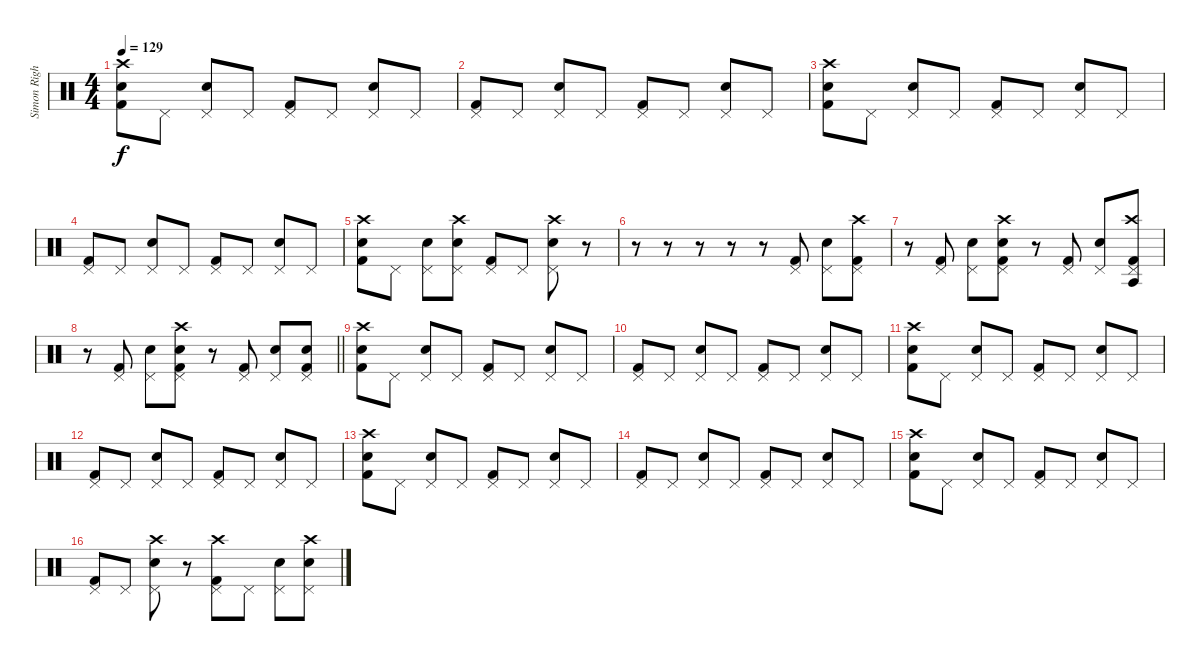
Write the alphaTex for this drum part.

\track ("Simon Right" "Simon Righ") {instrument percussion}
\staff {score}
\articulation defaults
\ts (4 4)
\tempo 129
\clef neutral
\ks c
("Crash high (hit)" "Snare (hit) 2" "Kick (hit) 2").8{dy f} "Pedal Hi-Hat (hit)".8 ("Snare (hit) 2" "Pedal Hi-Hat (hit)").8 "Pedal Hi-Hat (hit)".8 ("Kick (hit) 2" "Pedal Hi-Hat (hit)").8 "Pedal Hi-Hat (hit)".8 ("Pedal Hi-Hat (hit)" "Snare (hit) 2").8 "Pedal Hi-Hat (hit)".8 |
("Pedal Hi-Hat (hit)" "Kick (hit) 2").8 "Pedal Hi-Hat (hit)".8 ("Snare (hit) 2" "Pedal Hi-Hat (hit)").8 "Pedal Hi-Hat (hit)".8 ("Pedal Hi-Hat (hit)" "Kick (hit) 2").8 "Pedal Hi-Hat (hit)".8 ("Snare (hit) 2" "Pedal Hi-Hat (hit)").8 "Pedal Hi-Hat (hit)".8 |
("Crash high (hit)" "Snare (hit) 2" "Kick (hit) 2").8 "Pedal Hi-Hat (hit)".8 ("Snare (hit) 2" "Pedal Hi-Hat (hit)").8 "Pedal Hi-Hat (hit)".8 ("Kick (hit) 2" "Pedal Hi-Hat (hit)").8 "Pedal Hi-Hat (hit)".8 ("Pedal Hi-Hat (hit)" "Snare (hit) 2").8 "Pedal Hi-Hat (hit)".8 |
("Pedal Hi-Hat (hit)" "Kick (hit) 2").8 "Pedal Hi-Hat (hit)".8 ("Snare (hit) 2" "Pedal Hi-Hat (hit)").8 "Pedal Hi-Hat (hit)".8 ("Pedal Hi-Hat (hit)" "Kick (hit) 2").8 "Pedal Hi-Hat (hit)".8 ("Snare (hit) 2" "Pedal Hi-Hat (hit)").8 "Pedal Hi-Hat (hit)".8 |
("Crash high (hit)" "Snare (hit) 2" "Kick (hit) 2").8 "Pedal Hi-Hat (hit)".8 ("Snare (hit) 2" "Pedal Hi-Hat (hit)").8 ("Crash high (hit)" "Snare (hit) 2" "Pedal Hi-Hat (hit)").8 ("Kick (hit) 2" "Pedal Hi-Hat (hit)").8 "Pedal Hi-Hat (hit)".8 ("Crash high (hit)" "Pedal Hi-Hat (hit)" "Snare (hit) 2").8 r.8 |
r.8 r.8 r.8 r.8 r.8 ("Pedal Hi-Hat (hit)" "Kick (hit) 2").8 ("Pedal Hi-Hat (hit)" "Snare (hit) 2").8 ("Kick (hit) 2" "Crash high (hit)" "Pedal Hi-Hat (hit)").8 |
r.8 ("Kick (hit) 2" "Pedal Hi-Hat (hit)").8 ("Snare (hit) 2" "Pedal Hi-Hat (hit)").8 ("Crash high (hit)" "Snare (hit) 2" "Kick (hit) 2" "Pedal Hi-Hat (hit)").8 r.8 ("Kick (hit) 2" "Pedal Hi-Hat (hit)").8 ("Snare (hit) 2" "Pedal Hi-Hat (hit)").8 ("Crash high (hit)" "Agogo tow (hit)" "Kick (hit) 2" "Pedal Hi-Hat (hit)").8 |
\barLineRight lightlight
r.8 ("Kick (hit) 2" "Pedal Hi-Hat (hit)").8 ("Snare (hit) 2" "Pedal Hi-Hat (hit)").8 ("Snare (hit) 2" "Crash high (hit)" "Pedal Hi-Hat (hit)" "Kick (hit) 2").8 r.8 ("Kick (hit) 2" "Pedal Hi-Hat (hit)").8 ("Pedal Hi-Hat (hit)" "Snare (hit) 2").8 ("Kick (hit) 2" "Pedal Hi-Hat (hit)" "Snare (hit) 2").8 |
("Crash high (hit)" "Snare (hit) 2" "Kick (hit) 2").8 "Pedal Hi-Hat (hit)".8 ("Snare (hit) 2" "Pedal Hi-Hat (hit)").8 "Pedal Hi-Hat (hit)".8 ("Kick (hit) 2" "Pedal Hi-Hat (hit)").8 "Pedal Hi-Hat (hit)".8 ("Pedal Hi-Hat (hit)" "Snare (hit) 2").8 "Pedal Hi-Hat (hit)".8 |
("Pedal Hi-Hat (hit)" "Kick (hit) 2").8 "Pedal Hi-Hat (hit)".8 ("Snare (hit) 2" "Pedal Hi-Hat (hit)").8 "Pedal Hi-Hat (hit)".8 ("Pedal Hi-Hat (hit)" "Kick (hit) 2").8 "Pedal Hi-Hat (hit)".8 ("Snare (hit) 2" "Pedal Hi-Hat (hit)").8 "Pedal Hi-Hat (hit)".8 |
("Crash high (hit)" "Snare (hit) 2" "Kick (hit) 2").8 "Pedal Hi-Hat (hit)".8 ("Snare (hit) 2" "Pedal Hi-Hat (hit)").8 "Pedal Hi-Hat (hit)".8 ("Kick (hit) 2" "Pedal Hi-Hat (hit)").8 "Pedal Hi-Hat (hit)".8 ("Pedal Hi-Hat (hit)" "Snare (hit) 2").8 "Pedal Hi-Hat (hit)".8 |
("Pedal Hi-Hat (hit)" "Kick (hit) 2").8 "Pedal Hi-Hat (hit)".8 ("Snare (hit) 2" "Pedal Hi-Hat (hit)").8 "Pedal Hi-Hat (hit)".8 ("Pedal Hi-Hat (hit)" "Kick (hit) 2").8 "Pedal Hi-Hat (hit)".8 ("Snare (hit) 2" "Pedal Hi-Hat (hit)").8 "Pedal Hi-Hat (hit)".8 |
("Crash high (hit)" "Snare (hit) 2" "Kick (hit) 2").8 "Pedal Hi-Hat (hit)".8 ("Snare (hit) 2" "Pedal Hi-Hat (hit)").8 "Pedal Hi-Hat (hit)".8 ("Kick (hit) 2" "Pedal Hi-Hat (hit)").8 "Pedal Hi-Hat (hit)".8 ("Pedal Hi-Hat (hit)" "Snare (hit) 2").8 "Pedal Hi-Hat (hit)".8 |
("Pedal Hi-Hat (hit)" "Kick (hit) 2").8 "Pedal Hi-Hat (hit)".8 ("Snare (hit) 2" "Pedal Hi-Hat (hit)").8 "Pedal Hi-Hat (hit)".8 ("Pedal Hi-Hat (hit)" "Kick (hit) 2").8 "Pedal Hi-Hat (hit)".8 ("Snare (hit) 2" "Pedal Hi-Hat (hit)").8 "Pedal Hi-Hat (hit)".8 |
("Crash high (hit)" "Snare (hit) 2" "Kick (hit) 2").8 "Pedal Hi-Hat (hit)".8 ("Snare (hit) 2" "Pedal Hi-Hat (hit)").8 "Pedal Hi-Hat (hit)".8 ("Kick (hit) 2" "Pedal Hi-Hat (hit)").8 "Pedal Hi-Hat (hit)".8 ("Pedal Hi-Hat (hit)" "Snare (hit) 2").8 "Pedal Hi-Hat (hit)".8 |
("Pedal Hi-Hat (hit)" "Kick (hit) 2").8 "Pedal Hi-Hat (hit)".8 ("Crash high (hit)" "Snare (hit) 2" "Pedal Hi-Hat (hit)").8 r.8 ("Crash high (hit)" "Pedal Hi-Hat (hit)" "Kick (hit) 2").8 "Pedal Hi-Hat (hit)".8 ("Snare (hit) 2" "Pedal Hi-Hat (hit)").8 ("Crash high (hit)" "Snare (hit) 2" "Pedal Hi-Hat (hit)").8
